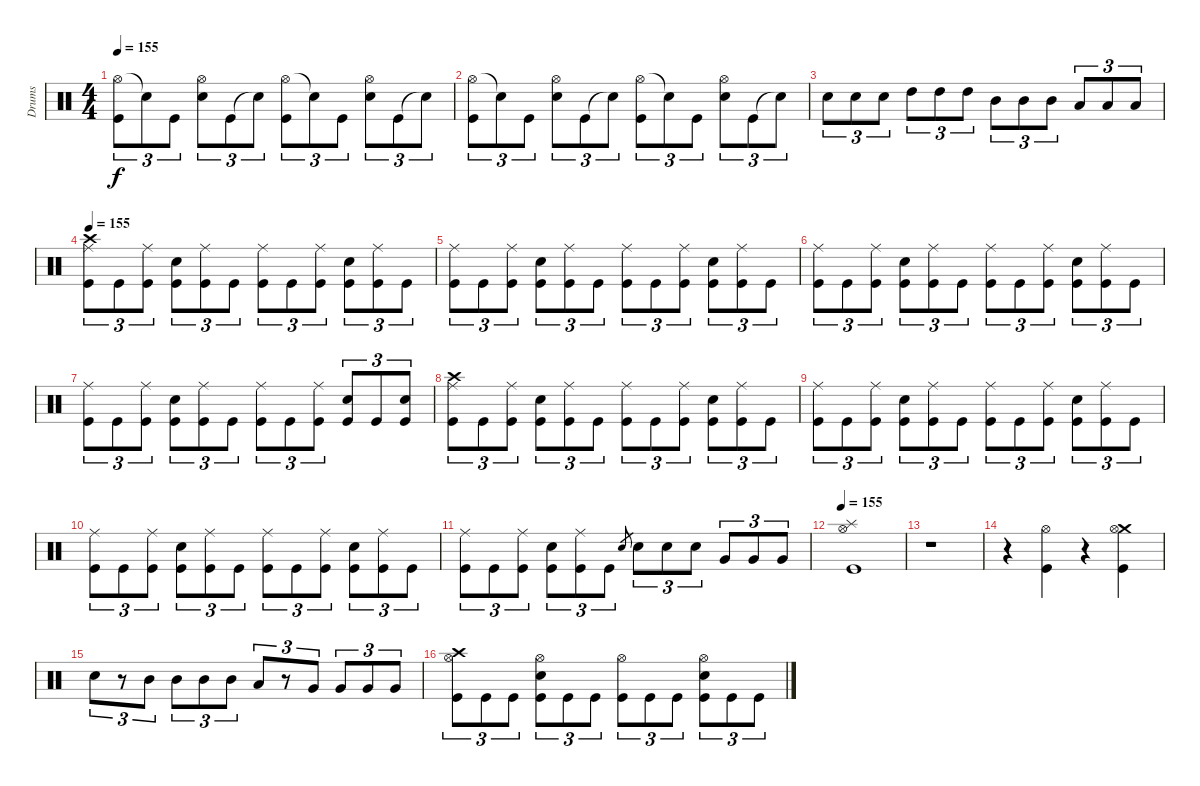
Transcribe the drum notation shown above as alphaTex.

\track ("Drums" "Drums") {instrument percussion}
\staff {score}
\articulation defaults
\ts (4 4)
\tempo 155
\clef neutral
\ks c
("Hi-Hat (open)" "Kick (hit)").8{tu (3 2) dy f} "Snare (hit)"{t}.8{tu (3 2)} "Kick (hit)".8{tu (3 2)} ("Hi-Hat (open)" "Electric Snare (hit)").8{tu (3 2)} "Kick (hit)".8{tu (3 2)} "Snare (hit)"{t}.8{tu (3 2)} ("Hi-Hat (open)" "Kick (hit)").8{tu (3 2)} "Snare (hit)"{t}.8{tu (3 2)} "Kick (hit)".8{tu (3 2)} ("Hi-Hat (open)" "Electric Snare (hit)").8{tu (3 2)} "Kick (hit)".8{tu (3 2)} "Snare (hit)"{t}.8{tu (3 2)} |
("Hi-Hat (open)" "Kick (hit)").8{tu (3 2)} "Snare (hit)"{t}.8{tu (3 2)} "Kick (hit)".8{tu (3 2)} ("Hi-Hat (open)" "Electric Snare (hit)").8{tu (3 2)} "Kick (hit)".8{tu (3 2)} "Snare (hit)"{t}.8{tu (3 2)} ("Hi-Hat (open)" "Kick (hit)").8{tu (3 2)} "Snare (hit)"{t}.8{tu (3 2)} "Kick (hit)".8{tu (3 2)} ("Hi-Hat (open)" "Electric Snare (hit)").8{tu (3 2)} "Kick (hit)".8{tu (3 2)} "Snare (hit)"{t}.8{tu (3 2)} |
"Electric Snare (hit)".8{tu (3 2)} "Electric Snare (hit)".8{tu (3 2)} "Electric Snare (hit)".8{tu (3 2)} "High Tom (hit)".8{tu (3 2)} "High Tom (hit)".8{tu (3 2)} "High Tom (hit)".8{tu (3 2)} "Mid Tom (hit)".8{tu (3 2)} "Mid Tom (hit)".8{tu (3 2)} "Mid Tom (hit)".8{tu (3 2)} "Low Tom (hit)".8{tu (3 2)} "Low Tom (hit)".8{tu (3 2)} "Low Tom (hit)".8{tu (3 2)} |
\tempo 155
("Crash high (hit)" "Ride (middle)" "Kick (hit)").8{tu (3 2)} "Kick (hit)".8{tu (3 2)} ("Ride (middle)" "Kick (hit)").8{tu (3 2)} ("Electric Snare (hit)" "Kick (hit)").8{tu (3 2)} ("Ride (middle)" "Kick (hit)").8{tu (3 2)} "Kick (hit)".8{tu (3 2)} ("Ride (middle)" "Kick (hit)").8{tu (3 2)} "Kick (hit)".8{tu (3 2)} ("Ride (middle)" "Kick (hit)").8{tu (3 2)} ("Electric Snare (hit)" "Kick (hit)").8{tu (3 2)} ("Ride (middle)" "Kick (hit)").8{tu (3 2)} "Kick (hit)".8{tu (3 2)} |
("Ride (middle)" "Kick (hit)").8{tu (3 2)} "Kick (hit)".8{tu (3 2)} ("Ride (middle)" "Kick (hit)").8{tu (3 2)} ("Electric Snare (hit)" "Kick (hit)").8{tu (3 2)} ("Ride (middle)" "Kick (hit)").8{tu (3 2)} "Kick (hit)".8{tu (3 2)} ("Ride (middle)" "Kick (hit)").8{tu (3 2)} "Kick (hit)".8{tu (3 2)} ("Ride (middle)" "Kick (hit)").8{tu (3 2)} ("Electric Snare (hit)" "Kick (hit)").8{tu (3 2)} ("Ride (middle)" "Kick (hit)").8{tu (3 2)} "Kick (hit)".8{tu (3 2)} |
("Ride (middle)" "Kick (hit)").8{tu (3 2)} "Kick (hit)".8{tu (3 2)} ("Ride (middle)" "Kick (hit)").8{tu (3 2)} ("Electric Snare (hit)" "Kick (hit)").8{tu (3 2)} ("Ride (middle)" "Kick (hit)").8{tu (3 2)} "Kick (hit)".8{tu (3 2)} ("Ride (middle)" "Kick (hit)").8{tu (3 2)} "Kick (hit)".8{tu (3 2)} ("Ride (middle)" "Kick (hit)").8{tu (3 2)} ("Electric Snare (hit)" "Kick (hit)").8{tu (3 2)} ("Ride (middle)" "Kick (hit)").8{tu (3 2)} "Kick (hit)".8{tu (3 2)} |
("Ride (middle)" "Kick (hit)").8{tu (3 2)} "Kick (hit)".8{tu (3 2)} ("Ride (middle)" "Kick (hit)").8{tu (3 2)} ("Electric Snare (hit)" "Kick (hit)").8{tu (3 2)} ("Ride (middle)" "Kick (hit)").8{tu (3 2)} "Kick (hit)".8{tu (3 2)} ("Ride (middle)" "Kick (hit)").8{tu (3 2)} "Kick (hit)".8{tu (3 2)} ("Ride (middle)" "Kick (hit)").8{tu (3 2)} ("Electric Snare (hit)" "Kick (hit)").8{tu (3 2)} "Kick (hit)".8{tu (3 2)} ("Electric Snare (hit)" "Kick (hit)").8{tu (3 2)} |
("Crash high (hit)" "Ride (middle)" "Kick (hit)").8{tu (3 2)} "Kick (hit)".8{tu (3 2)} ("Ride (middle)" "Kick (hit)").8{tu (3 2)} ("Electric Snare (hit)" "Kick (hit)").8{tu (3 2)} ("Ride (middle)" "Kick (hit)").8{tu (3 2)} "Kick (hit)".8{tu (3 2)} ("Ride (middle)" "Kick (hit)").8{tu (3 2)} "Kick (hit)".8{tu (3 2)} ("Ride (middle)" "Kick (hit)").8{tu (3 2)} ("Electric Snare (hit)" "Kick (hit)").8{tu (3 2)} ("Ride (middle)" "Kick (hit)").8{tu (3 2)} "Kick (hit)".8{tu (3 2)} |
("Ride (middle)" "Kick (hit)").8{tu (3 2)} "Kick (hit)".8{tu (3 2)} ("Ride (middle)" "Kick (hit)").8{tu (3 2)} ("Electric Snare (hit)" "Kick (hit)").8{tu (3 2)} ("Ride (middle)" "Kick (hit)").8{tu (3 2)} "Kick (hit)".8{tu (3 2)} ("Ride (middle)" "Kick (hit)").8{tu (3 2)} "Kick (hit)".8{tu (3 2)} ("Ride (middle)" "Kick (hit)").8{tu (3 2)} ("Electric Snare (hit)" "Kick (hit)").8{tu (3 2)} ("Ride (middle)" "Kick (hit)").8{tu (3 2)} "Kick (hit)".8{tu (3 2)} |
("Ride (middle)" "Kick (hit)").8{tu (3 2)} "Kick (hit)".8{tu (3 2)} ("Ride (middle)" "Kick (hit)").8{tu (3 2)} ("Electric Snare (hit)" "Kick (hit)").8{tu (3 2)} ("Ride (middle)" "Kick (hit)").8{tu (3 2)} "Kick (hit)".8{tu (3 2)} ("Ride (middle)" "Kick (hit)").8{tu (3 2)} "Kick (hit)".8{tu (3 2)} ("Ride (middle)" "Kick (hit)").8{tu (3 2)} ("Electric Snare (hit)" "Kick (hit)").8{tu (3 2)} ("Ride (middle)" "Kick (hit)").8{tu (3 2)} "Kick (hit)".8{tu (3 2)} |
("Ride (middle)" "Kick (hit)").8{tu (3 2)} "Kick (hit)".8{tu (3 2)} ("Ride (middle)" "Kick (hit)").8{tu (3 2)} ("Electric Snare (hit)" "Kick (hit)").8{tu (3 2)} ("Ride (middle)" "Kick (hit)").8{tu (3 2)} "Kick (hit)".8{tu (3 2)} "Electric Snare (hit)".8{gr} "Electric Snare (hit)".8{tu (3 2)} "Electric Snare (hit)".8{tu (3 2)} "Electric Snare (hit)".8{tu (3 2)} "Very Low Tom (hit)".8{tu (3 2)} "Very Low Tom (hit)".8{tu (3 2)} "Very Low Tom (hit)".8{tu (3 2)} |
\tempo 155
("Splash (hit)" "Hi-Hat (open)" "Kick (hit)").1 |
r.1 |
r.4 ("Hi-Hat (open)" "Kick (hit)").4 r.4 ("Crash medium (hit)" "Hi-Hat (open)" "Kick (hit)").4 |
"Electric Snare (hit)".8{tu (3 2)} r.8{tu (3 2)} "Mid Tom (hit)".8{tu (3 2)} "Mid Tom (hit)".8{tu (3 2)} "Mid Tom (hit)".8{tu (3 2)} "Mid Tom (hit)".8{tu (3 2)} "Low Tom (hit)".8{tu (3 2)} r.8{tu (3 2)} "Very Low Tom (hit)".8{tu (3 2)} "Very Low Tom (hit)".8{tu (3 2)} "Very Low Tom (hit)".8{tu (3 2)} "Very Low Tom (hit)".8{tu (3 2)} |
("Crash high (hit)" "Hi-Hat (open)" "Kick (hit)").8{tu (3 2)} "Kick (hit)".8{tu (3 2)} "Kick (hit)".8{tu (3 2)} ("Hi-Hat (open)" "Electric Snare (hit)" "Kick (hit)").8{tu (3 2)} "Kick (hit)".8{tu (3 2)} "Kick (hit)".8{tu (3 2)} ("Hi-Hat (open)" "Kick (hit)").8{tu (3 2)} "Kick (hit)".8{tu (3 2)} "Kick (hit)".8{tu (3 2)} ("Hi-Hat (open)" "Electric Snare (hit)" "Kick (hit)").8{tu (3 2)} "Kick (hit)".8{tu (3 2)} "Kick (hit)".8{tu (3 2)}
